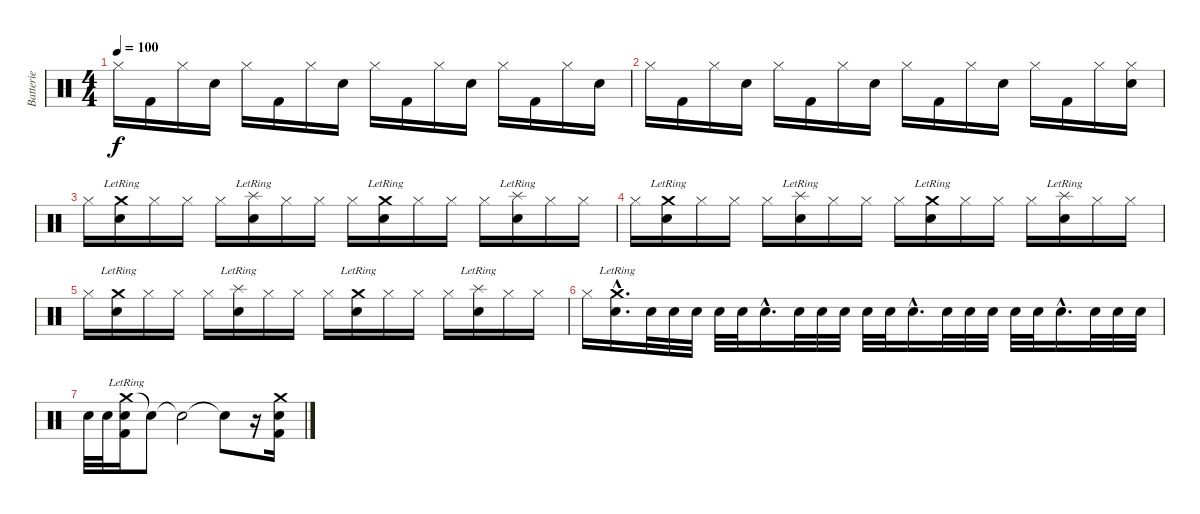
\track ("Batterie" "Batterie") {instrument percussion}
\staff {score}
\articulation defaults
\ts (4 4)
\tempo 100
\clef neutral
\ks c "Hi-Hat (closed)".16{dy f} "Kick (hit) 2".16 "Hi-Hat (closed)".16 "Metronome (bell)".16 "Hi-Hat (closed)".16 "Kick (hit) 2".16 "Hi-Hat (closed)".16 "Metronome (bell)".16 "Hi-Hat (closed)".16 "Kick (hit) 2".16 "Hi-Hat (closed)".16 "Metronome (bell)".16 "Hi-Hat (closed)".16 "Kick (hit) 2".16 "Hi-Hat (closed)".16 "Metronome (bell)".16
|
"Hi-Hat (closed)".16 "Kick (hit) 2".16 "Hi-Hat (closed)".16 "Metronome (bell)".16 "Hi-Hat (closed)".16 "Kick (hit) 2".16 "Hi-Hat (closed)".16 "Metronome (bell)".16 "Hi-Hat (closed)".16 "Kick (hit) 2".16 "Hi-Hat (closed)".16 "Metronome (bell)".16 "Hi-Hat (closed)".16 "Kick (hit) 2".16 "Hi-Hat (closed)".16 ("Metronome (bell)" "Hi-Hat (closed)").16 |
"Hi-Hat (closed)".16 ("Crash medium (hit)"{lr} "Metronome (bell)").16 "Hi-Hat (closed)".16 "Hi-Hat (closed)".16 "Hi-Hat (closed)".16 ("Splash (hit)"{lr} "Metronome (bell)").16 "Hi-Hat (closed)".16 "Hi-Hat (closed)".16 "Hi-Hat (closed)".16 ("Crash medium (hit)"{lr} "Metronome (bell)").16 "Hi-Hat (closed)".16 "Hi-Hat (closed)".16 "Hi-Hat (closed)".16 ("Splash (hit)"{lr} "Metronome (bell)").16 "Hi-Hat (closed)".16 "Hi-Hat (closed)".16 |
"Hi-Hat (closed)".16 ("Crash medium (hit)"{lr} "Metronome (bell)").16 "Hi-Hat (closed)".16 "Hi-Hat (closed)".16 "Hi-Hat (closed)".16 ("Splash (hit)"{lr} "Metronome (bell)").16 "Hi-Hat (closed)".16 "Hi-Hat (closed)".16 "Hi-Hat (closed)".16 ("Crash medium (hit)"{lr} "Metronome (bell)").16 "Hi-Hat (closed)".16 "Hi-Hat (closed)".16 "Hi-Hat (closed)".16 ("Splash (hit)"{lr} "Metronome (bell)").16 "Hi-Hat (closed)".16 "Hi-Hat (closed)".16 |
"Hi-Hat (closed)".16 ("Crash medium (hit)"{lr} "Metronome (bell)").16 "Hi-Hat (closed)".16 "Hi-Hat (closed)".16 "Hi-Hat (closed)".16 ("Splash (hit)"{lr} "Metronome (bell)").16 "Hi-Hat (closed)".16 "Hi-Hat (closed)".16 "Hi-Hat (closed)".16 ("Crash medium (hit)"{lr} "Metronome (bell)").16 "Hi-Hat (closed)".16 "Hi-Hat (closed)".16 "Hi-Hat (closed)".16 ("Splash (hit)"{lr} "Metronome (bell)").16 "Hi-Hat (closed)".16 "Hi-Hat (closed)".16 |
"Hi-Hat (closed)".16 ("Crash medium (hit)"{hac lr} "Metronome (bell)"{hac}).16{d} "Metronome (bell)".32 "Metronome (bell)".32 "Metronome (bell)".32 "Metronome (bell)".32 "Metronome (bell)".32 "Metronome (bell)"{hac}.16{d} "Metronome (bell)".32 "Metronome (bell)".32 "Metronome (bell)".32 "Metronome (bell)".32 "Metronome (bell)".32 "Metronome (bell)"{hac}.16{d} "Metronome (bell)".32 "Metronome (bell)".32 "Metronome (bell)".32 "Metronome (bell)".32 "Metronome (bell)".32 "Metronome (bell)"{hac}.16{d} "Metronome (bell)".32 "Metronome (bell)".32 "Metronome (bell)".32 |
"Metronome (bell)".32 "Metronome (bell)".32 ("Crash medium (hit)"{lr} "Metronome (bell)" "Kick (hit) 2").16 "Snare (hit)"{t}.8 "Snare (hit)"{t}.2 "Snare (hit)"{t}.8 r.16 ("Crash medium (hit)" "Metronome (bell)" "Kick (hit) 2").16
